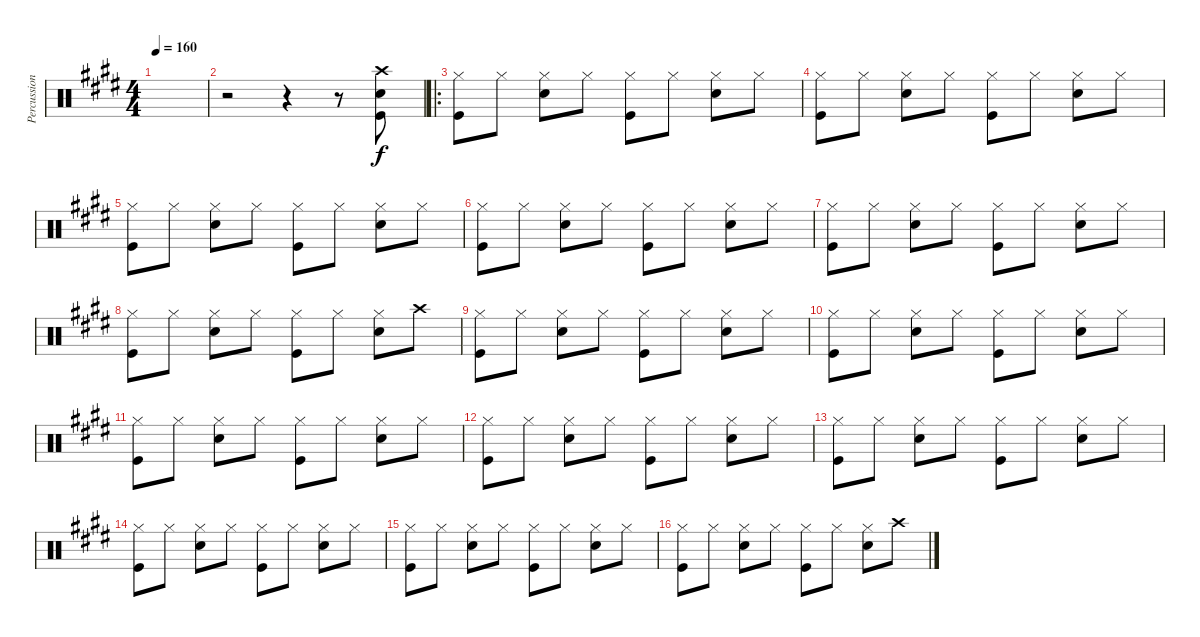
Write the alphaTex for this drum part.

\track ("Percussion" "Percussion") {instrument percussion}
\staff {score}
\articulation defaults
\ts (4 4)
\tempo 160
\clef neutral
\ks e
|
r.2 r.4 r.8 ("Crash high (hit)" "Snare (hit) 2" "Kick (hit)").8 |
\ro
("Hi-Hat (closed)" "Kick (hit)").8 "Hi-Hat (closed)".8 ("Hi-Hat (closed)" "Snare (hit) 2").8 "Hi-Hat (closed)".8 ("Hi-Hat (closed)" "Kick (hit)").8 "Hi-Hat (closed)".8 ("Hi-Hat (closed)" "Snare (hit) 2").8 "Hi-Hat (closed)".8 |
("Hi-Hat (closed)" "Kick (hit)").8 "Hi-Hat (closed)".8 ("Hi-Hat (closed)" "Snare (hit) 2").8 "Hi-Hat (closed)".8 ("Hi-Hat (closed)" "Kick (hit)").8 "Hi-Hat (closed)".8 ("Hi-Hat (closed)" "Snare (hit) 2").8 "Hi-Hat (closed)".8 |
("Hi-Hat (closed)" "Kick (hit)").8 "Hi-Hat (closed)".8 ("Hi-Hat (closed)" "Snare (hit) 2").8 "Hi-Hat (closed)".8 ("Hi-Hat (closed)" "Kick (hit)").8 "Hi-Hat (closed)".8 ("Hi-Hat (closed)" "Snare (hit) 2").8 "Hi-Hat (closed)".8 |
("Hi-Hat (closed)" "Kick (hit)").8 "Hi-Hat (closed)".8 ("Hi-Hat (closed)" "Snare (hit) 2").8 "Hi-Hat (closed)".8 ("Hi-Hat (closed)" "Kick (hit)").8 "Hi-Hat (closed)".8 ("Hi-Hat (closed)" "Snare (hit) 2").8 "Hi-Hat (closed)".8 |
("Hi-Hat (closed)" "Kick (hit)").8 "Hi-Hat (closed)".8 ("Hi-Hat (closed)" "Snare (hit) 2").8 "Hi-Hat (closed)".8 ("Hi-Hat (closed)" "Kick (hit)").8 "Hi-Hat (closed)".8 ("Hi-Hat (closed)" "Snare (hit) 2").8 "Hi-Hat (closed)".8 |
("Hi-Hat (closed)" "Kick (hit)").8 "Hi-Hat (closed)".8 ("Hi-Hat (closed)" "Snare (hit) 2").8 "Hi-Hat (closed)".8 ("Hi-Hat (closed)" "Kick (hit)").8 "Hi-Hat (closed)".8 ("Hi-Hat (closed)" "Snare (hit) 2").8 "Crash high (hit)".8 |
("Hi-Hat (closed)" "Kick (hit)").8 "Hi-Hat (closed)".8 ("Hi-Hat (closed)" "Snare (hit) 2").8 "Hi-Hat (closed)".8 ("Hi-Hat (closed)" "Kick (hit)").8 "Hi-Hat (closed)".8 ("Hi-Hat (closed)" "Snare (hit) 2").8 "Hi-Hat (closed)".8 |
("Hi-Hat (closed)" "Kick (hit)").8 "Hi-Hat (closed)".8 ("Hi-Hat (closed)" "Snare (hit) 2").8 "Hi-Hat (closed)".8 ("Hi-Hat (closed)" "Kick (hit)").8 "Hi-Hat (closed)".8 ("Hi-Hat (closed)" "Snare (hit) 2").8 "Hi-Hat (closed)".8 |
("Hi-Hat (closed)" "Kick (hit)").8 "Hi-Hat (closed)".8 ("Hi-Hat (closed)" "Snare (hit) 2").8 "Hi-Hat (closed)".8 ("Hi-Hat (closed)" "Kick (hit)").8 "Hi-Hat (closed)".8 ("Hi-Hat (closed)" "Snare (hit) 2").8 "Hi-Hat (closed)".8 |
("Hi-Hat (closed)" "Kick (hit)").8 "Hi-Hat (closed)".8 ("Hi-Hat (closed)" "Snare (hit) 2").8 "Hi-Hat (closed)".8 ("Hi-Hat (closed)" "Kick (hit)").8 "Hi-Hat (closed)".8 ("Hi-Hat (closed)" "Snare (hit) 2").8 "Hi-Hat (closed)".8 |
("Hi-Hat (closed)" "Kick (hit)").8 "Hi-Hat (closed)".8 ("Hi-Hat (closed)" "Snare (hit) 2").8 "Hi-Hat (closed)".8 ("Hi-Hat (closed)" "Kick (hit)").8 "Hi-Hat (closed)".8 ("Hi-Hat (closed)" "Snare (hit) 2").8 "Hi-Hat (closed)".8 |
("Hi-Hat (closed)" "Kick (hit)").8 "Hi-Hat (closed)".8 ("Hi-Hat (closed)" "Snare (hit) 2").8 "Hi-Hat (closed)".8 ("Hi-Hat (closed)" "Kick (hit)").8 "Hi-Hat (closed)".8 ("Hi-Hat (closed)" "Snare (hit) 2").8 "Hi-Hat (closed)".8 |
("Hi-Hat (closed)" "Kick (hit)").8 "Hi-Hat (closed)".8 ("Hi-Hat (closed)" "Snare (hit) 2").8 "Hi-Hat (closed)".8 ("Hi-Hat (closed)" "Kick (hit)").8 "Hi-Hat (closed)".8 ("Hi-Hat (closed)" "Snare (hit) 2").8 "Hi-Hat (closed)".8 |
("Hi-Hat (closed)" "Kick (hit)").8 "Hi-Hat (closed)".8 ("Hi-Hat (closed)" "Snare (hit) 2").8 "Hi-Hat (closed)".8 ("Hi-Hat (closed)" "Kick (hit)").8 "Hi-Hat (closed)".8 ("Hi-Hat (closed)" "Snare (hit) 2").8 "Crash high (hit)".8
